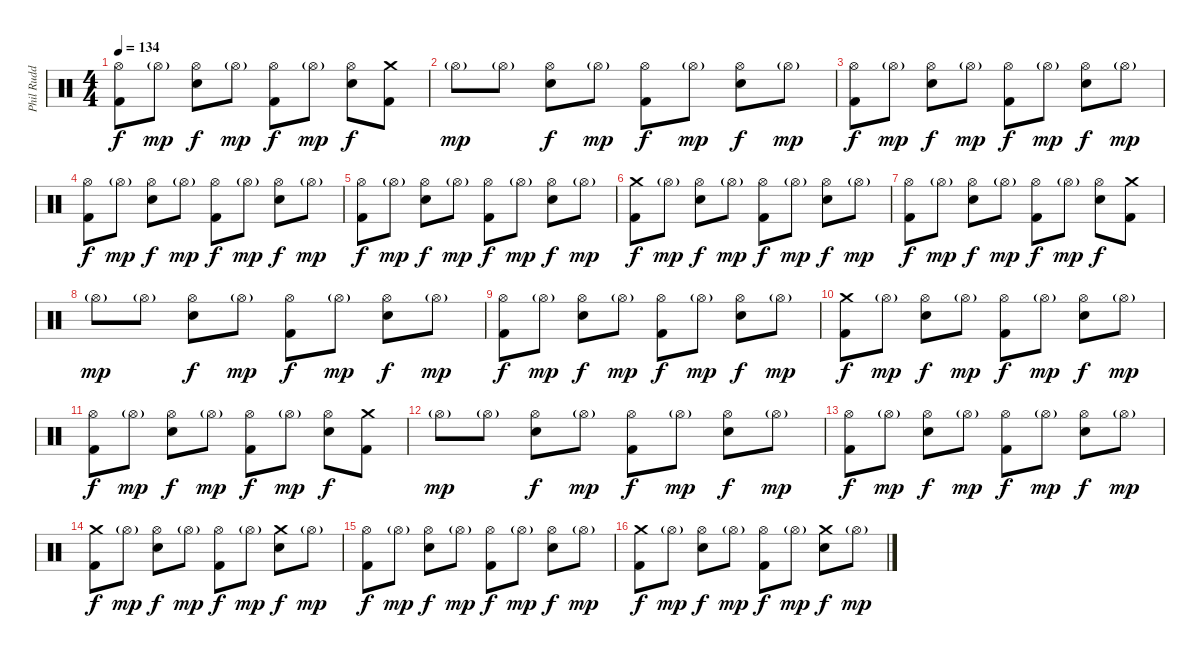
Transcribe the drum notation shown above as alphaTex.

\track ("Phil Rudd" "Phil Rudd") {instrument percussion}
\staff {score}
\articulation defaults
\ts (4 4)
\tempo 134
\clef neutral
\ks c
("Hi-Hat (open)" "Kick (hit) 2").8{dy f} "Hi-Hat (open)"{g}.8{dy mp} ("Hi-Hat (open)" "Snare (hit) 2").8{dy f} "Hi-Hat (open)"{g}.8{dy mp} ("Hi-Hat (open)" "Kick (hit) 2").8{dy f} "Hi-Hat (open)"{g}.8{dy mp} ("Hi-Hat (open)" "Snare (hit) 2").8{dy f} ("Crash medium (hit)" "Kick (hit) 2").8 |
"Hi-Hat (open)"{g}.8{dy mp} "Hi-Hat (open)"{g}.8 ("Hi-Hat (open)" "Snare (hit) 2").8{dy f} "Hi-Hat (open)"{g}.8{dy mp} ("Hi-Hat (open)" "Kick (hit) 2").8{dy f} "Hi-Hat (open)"{g}.8{dy mp} ("Hi-Hat (open)" "Snare (hit) 2").8{dy f} "Hi-Hat (open)"{g}.8{dy mp} |
("Hi-Hat (open)" "Kick (hit) 2").8{dy f} "Hi-Hat (open)"{g}.8{dy mp} ("Hi-Hat (open)" "Snare (hit) 2").8{dy f} "Hi-Hat (open)"{g}.8{dy mp} ("Hi-Hat (open)" "Kick (hit) 2").8{dy f} "Hi-Hat (open)"{g}.8{dy mp} ("Hi-Hat (open)" "Snare (hit) 2").8{dy f} "Hi-Hat (open)"{g}.8{dy mp} |
("Hi-Hat (open)" "Kick (hit) 2").8{dy f} "Hi-Hat (open)"{g}.8{dy mp} ("Hi-Hat (open)" "Snare (hit) 2").8{dy f} "Hi-Hat (open)"{g}.8{dy mp} ("Hi-Hat (open)" "Kick (hit) 2").8{dy f} "Hi-Hat (open)"{g}.8{dy mp} ("Hi-Hat (open)" "Snare (hit) 2").8{dy f} "Hi-Hat (open)"{g}.8{dy mp} |
("Hi-Hat (open)" "Kick (hit) 2").8{dy f} "Hi-Hat (open)"{g}.8{dy mp} ("Hi-Hat (open)" "Snare (hit) 2").8{dy f} "Hi-Hat (open)"{g}.8{dy mp} ("Hi-Hat (open)" "Kick (hit) 2").8{dy f} "Hi-Hat (open)"{g}.8{dy mp} ("Hi-Hat (open)" "Snare (hit) 2").8{dy f} "Hi-Hat (open)"{g}.8{dy mp} |
("Crash medium (hit)" "Kick (hit) 2").8{dy f} "Hi-Hat (open)"{g}.8{dy mp} ("Hi-Hat (open)" "Snare (hit) 2").8{dy f} "Hi-Hat (open)"{g}.8{dy mp} ("Hi-Hat (open)" "Kick (hit) 2").8{dy f} "Hi-Hat (open)"{g}.8{dy mp} ("Hi-Hat (open)" "Snare (hit) 2").8{dy f} "Hi-Hat (open)"{g}.8{dy mp} |
("Hi-Hat (open)" "Kick (hit) 2").8{dy f} "Hi-Hat (open)"{g}.8{dy mp} ("Hi-Hat (open)" "Snare (hit) 2").8{dy f} "Hi-Hat (open)"{g}.8{dy mp} ("Hi-Hat (open)" "Kick (hit) 2").8{dy f} "Hi-Hat (open)"{g}.8{dy mp} ("Hi-Hat (open)" "Snare (hit) 2").8{dy f} ("Crash medium (hit)" "Kick (hit) 2").8 |
"Hi-Hat (open)"{g}.8{dy mp} "Hi-Hat (open)"{g}.8 ("Hi-Hat (open)" "Snare (hit) 2").8{dy f} "Hi-Hat (open)"{g}.8{dy mp} ("Hi-Hat (open)" "Kick (hit) 2").8{dy f} "Hi-Hat (open)"{g}.8{dy mp} ("Hi-Hat (open)" "Snare (hit) 2").8{dy f} "Hi-Hat (open)"{g}.8{dy mp} |
("Hi-Hat (open)" "Kick (hit) 2").8{dy f} "Hi-Hat (open)"{g}.8{dy mp} ("Hi-Hat (open)" "Snare (hit) 2").8{dy f} "Hi-Hat (open)"{g}.8{dy mp} ("Hi-Hat (open)" "Kick (hit) 2").8{dy f} "Hi-Hat (open)"{g}.8{dy mp} ("Hi-Hat (open)" "Snare (hit) 2").8{dy f} "Hi-Hat (open)"{g}.8{dy mp} |
("Crash medium (hit)" "Kick (hit) 2").8{dy f} "Hi-Hat (open)"{g}.8{dy mp} ("Hi-Hat (open)" "Snare (hit) 2").8{dy f} "Hi-Hat (open)"{g}.8{dy mp} ("Hi-Hat (open)" "Kick (hit) 2").8{dy f} "Hi-Hat (open)"{g}.8{dy mp} ("Hi-Hat (open)" "Snare (hit) 2").8{dy f} "Hi-Hat (open)"{g}.8{dy mp} |
("Hi-Hat (open)" "Kick (hit) 2").8{dy f} "Hi-Hat (open)"{g}.8{dy mp} ("Hi-Hat (open)" "Snare (hit) 2").8{dy f} "Hi-Hat (open)"{g}.8{dy mp} ("Hi-Hat (open)" "Kick (hit) 2").8{dy f} "Hi-Hat (open)"{g}.8{dy mp} ("Hi-Hat (open)" "Snare (hit) 2").8{dy f} ("Crash medium (hit)" "Kick (hit) 2").8 |
"Hi-Hat (open)"{g}.8{dy mp} "Hi-Hat (open)"{g}.8 ("Hi-Hat (open)" "Snare (hit) 2").8{dy f} "Hi-Hat (open)"{g}.8{dy mp} ("Hi-Hat (open)" "Kick (hit) 2").8{dy f} "Hi-Hat (open)"{g}.8{dy mp} ("Hi-Hat (open)" "Snare (hit) 2").8{dy f} "Hi-Hat (open)"{g}.8{dy mp} |
("Hi-Hat (open)" "Kick (hit) 2").8{dy f} "Hi-Hat (open)"{g}.8{dy mp} ("Hi-Hat (open)" "Snare (hit) 2").8{dy f} "Hi-Hat (open)"{g}.8{dy mp} ("Hi-Hat (open)" "Kick (hit) 2").8{dy f} "Hi-Hat (open)"{g}.8{dy mp} ("Hi-Hat (open)" "Snare (hit) 2").8{dy f} "Hi-Hat (open)"{g}.8{dy mp} |
("Crash medium (hit)" "Kick (hit) 2").8{dy f} "Hi-Hat (open)"{g}.8{dy mp} ("Hi-Hat (open)" "Snare (hit) 2").8{dy f} "Hi-Hat (open)"{g}.8{dy mp} ("Hi-Hat (open)" "Kick (hit) 2").8{dy f} "Hi-Hat (open)"{g}.8{dy mp} ("Crash medium (hit)" "Snare (hit) 2").8{dy f} "Hi-Hat (open)"{g}.8{dy mp} |
("Hi-Hat (open)" "Kick (hit) 2").8{dy f} "Hi-Hat (open)"{g}.8{dy mp} ("Hi-Hat (open)" "Snare (hit) 2").8{dy f} "Hi-Hat (open)"{g}.8{dy mp} ("Hi-Hat (open)" "Kick (hit) 2").8{dy f} "Hi-Hat (open)"{g}.8{dy mp} ("Hi-Hat (open)" "Snare (hit) 2").8{dy f} "Hi-Hat (open)"{g}.8{dy mp} |
("Crash medium (hit)" "Kick (hit) 2").8{dy f} "Hi-Hat (open)"{g}.8{dy mp} ("Hi-Hat (open)" "Snare (hit) 2").8{dy f} "Hi-Hat (open)"{g}.8{dy mp} ("Hi-Hat (open)" "Kick (hit) 2").8{dy f} "Hi-Hat (open)"{g}.8{dy mp} ("Crash medium (hit)" "Snare (hit) 2").8{dy f} "Hi-Hat (open)"{g}.8{dy mp}
